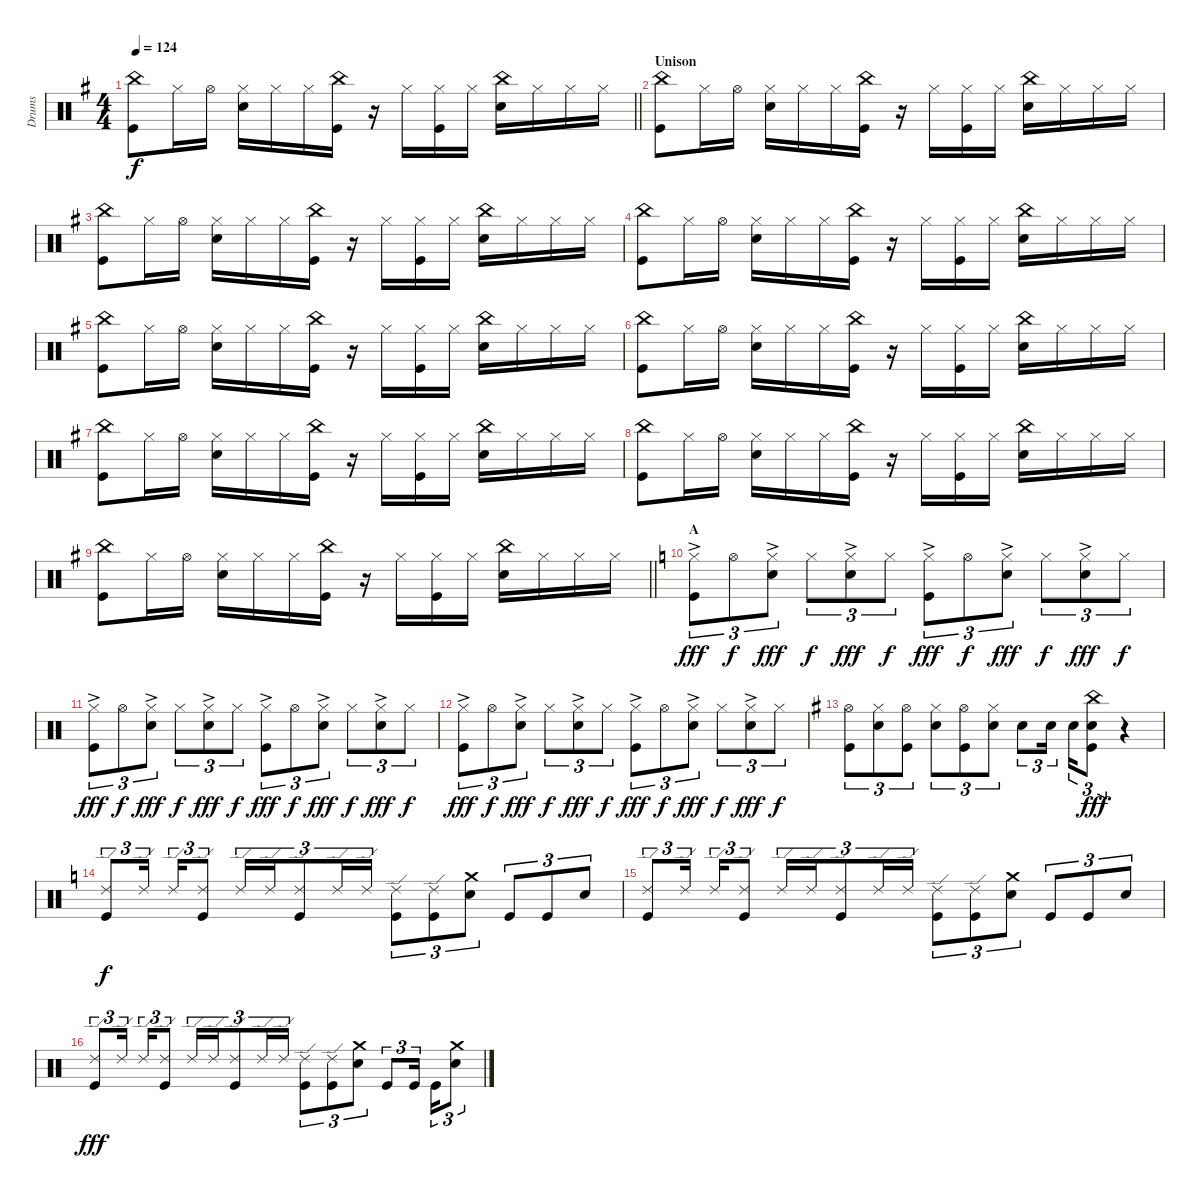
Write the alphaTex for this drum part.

\track ("Drums" "Drums") {instrument percussion}
\staff {score}
\articulation defaults
\ts (4 4)
\tempo 124
\clef neutral
\barLineRight lightlight
\ks eminor
("China (hit)" "Kick (hit)").8{dy f} "Hi-Hat (closed)".16 "Hi-Hat (open)".16 ("Hi-Hat (closed)" "Electric Snare (hit)").16 "Hi-Hat (closed)".16 "Hi-Hat (closed)".16 ("China (hit)" "Kick (hit)").16 r.16 "Hi-Hat (closed)".16 ("Hi-Hat (closed)" "Kick (hit)").16 "Hi-Hat (closed)".16 ("China (hit)" "Electric Snare (hit)").16 "Hi-Hat (closed)".16 "Hi-Hat (closed)".16 "Hi-Hat (closed)".16 |
\section ("" "Unison")
("China (hit)" "Kick (hit)").8 "Hi-Hat (closed)".16 "Hi-Hat (open)".16 ("Hi-Hat (closed)" "Electric Snare (hit)").16 "Hi-Hat (closed)".16 "Hi-Hat (closed)".16 ("China (hit)" "Kick (hit)").16 r.16 "Hi-Hat (closed)".16 ("Hi-Hat (closed)" "Kick (hit)").16 "Hi-Hat (closed)".16 ("China (hit)" "Electric Snare (hit)").16 "Hi-Hat (closed)".16 "Hi-Hat (closed)".16 "Hi-Hat (closed)".16 |
("China (hit)" "Kick (hit)").8 "Hi-Hat (closed)".16 "Hi-Hat (open)".16 ("Hi-Hat (closed)" "Electric Snare (hit)").16 "Hi-Hat (closed)".16 "Hi-Hat (closed)".16 ("China (hit)" "Kick (hit)").16 r.16 "Hi-Hat (closed)".16 ("Hi-Hat (closed)" "Kick (hit)").16 "Hi-Hat (closed)".16 ("China (hit)" "Electric Snare (hit)").16 "Hi-Hat (closed)".16 "Hi-Hat (closed)".16 "Hi-Hat (closed)".16 |
("China (hit)" "Kick (hit)").8 "Hi-Hat (closed)".16 "Hi-Hat (open)".16 ("Hi-Hat (closed)" "Electric Snare (hit)").16 "Hi-Hat (closed)".16 "Hi-Hat (closed)".16 ("China (hit)" "Kick (hit)").16 r.16 "Hi-Hat (closed)".16 ("Hi-Hat (closed)" "Kick (hit)").16 "Hi-Hat (closed)".16 ("China (hit)" "Electric Snare (hit)").16 "Hi-Hat (closed)".16 "Hi-Hat (closed)".16 "Hi-Hat (closed)".16 |
("China (hit)" "Kick (hit)").8 "Hi-Hat (closed)".16 "Hi-Hat (open)".16 ("Hi-Hat (closed)" "Electric Snare (hit)").16 "Hi-Hat (closed)".16 "Hi-Hat (closed)".16 ("China (hit)" "Kick (hit)").16 r.16 "Hi-Hat (closed)".16 ("Hi-Hat (closed)" "Kick (hit)").16 "Hi-Hat (closed)".16 ("China (hit)" "Electric Snare (hit)").16 "Hi-Hat (closed)".16 "Hi-Hat (closed)".16 "Hi-Hat (closed)".16 |
("China (hit)" "Kick (hit)").8 "Hi-Hat (closed)".16 "Hi-Hat (open)".16 ("Hi-Hat (closed)" "Electric Snare (hit)").16 "Hi-Hat (closed)".16 "Hi-Hat (closed)".16 ("China (hit)" "Kick (hit)").16 r.16 "Hi-Hat (closed)".16 ("Hi-Hat (closed)" "Kick (hit)").16 "Hi-Hat (closed)".16 ("China (hit)" "Electric Snare (hit)").16 "Hi-Hat (closed)".16 "Hi-Hat (closed)".16 "Hi-Hat (closed)".16 |
("China (hit)" "Kick (hit)").8 "Hi-Hat (closed)".16 "Hi-Hat (open)".16 ("Hi-Hat (closed)" "Electric Snare (hit)").16 "Hi-Hat (closed)".16 "Hi-Hat (closed)".16 ("China (hit)" "Kick (hit)").16 r.16 "Hi-Hat (closed)".16 ("Hi-Hat (closed)" "Kick (hit)").16 "Hi-Hat (closed)".16 ("China (hit)" "Electric Snare (hit)").16 "Hi-Hat (closed)".16 "Hi-Hat (closed)".16 "Hi-Hat (closed)".16 |
("China (hit)" "Kick (hit)").8 "Hi-Hat (closed)".16 "Hi-Hat (open)".16 ("Hi-Hat (closed)" "Electric Snare (hit)").16 "Hi-Hat (closed)".16 "Hi-Hat (closed)".16 ("China (hit)" "Kick (hit)").16 r.16 "Hi-Hat (closed)".16 ("Hi-Hat (closed)" "Kick (hit)").16 "Hi-Hat (closed)".16 ("China (hit)" "Electric Snare (hit)").16 "Hi-Hat (closed)".16 "Hi-Hat (closed)".16 "Hi-Hat (closed)".16 |
\barLineRight lightlight
("China (hit)" "Kick (hit)").8 "Hi-Hat (closed)".16 "Hi-Hat (open)".16 ("Hi-Hat (closed)" "Electric Snare (hit)").16 "Hi-Hat (closed)".16 "Hi-Hat (closed)".16 ("China (hit)" "Kick (hit)").16 r.16 "Hi-Hat (closed)".16 ("Hi-Hat (closed)" "Kick (hit)").16 "Hi-Hat (closed)".16 ("China (hit)" "Electric Snare (hit)").16 "Hi-Hat (closed)".16 "Hi-Hat (closed)".16 "Hi-Hat (closed)".16 |
\section ("" "A")
\ks c
("Hi-Hat (closed)"{ac} "Kick (hit)").8{tu (3 2) dy fff} "Hi-Hat (open)".8{tu (3 2) dy f} ("Hi-Hat (closed)"{ac} "Electric Snare (hit)").8{tu (3 2) dy fff} "Hi-Hat (closed)".8{tu (3 2) dy f} ("Hi-Hat (closed)"{ac} "Electric Snare (hit)").8{tu (3 2) dy fff} "Hi-Hat (closed)".8{tu (3 2) dy f} ("Hi-Hat (closed)"{ac} "Kick (hit)").8{tu (3 2) dy fff} "Hi-Hat (open)".8{tu (3 2) dy f} ("Hi-Hat (closed)"{ac} "Electric Snare (hit)").8{tu (3 2) dy fff} "Hi-Hat (closed)".8{tu (3 2) dy f} ("Hi-Hat (closed)"{ac} "Electric Snare (hit)").8{tu (3 2) dy fff} "Hi-Hat (closed)".8{tu (3 2) dy f} |
("Hi-Hat (closed)"{ac} "Kick (hit)").8{tu (3 2) dy fff} "Hi-Hat (open)".8{tu (3 2) dy f} ("Hi-Hat (closed)"{ac} "Electric Snare (hit)").8{tu (3 2) dy fff} "Hi-Hat (closed)".8{tu (3 2) dy f} ("Hi-Hat (closed)"{ac} "Electric Snare (hit)").8{tu (3 2) dy fff} "Hi-Hat (closed)".8{tu (3 2) dy f} ("Hi-Hat (closed)"{ac} "Kick (hit)").8{tu (3 2) dy fff} "Hi-Hat (open)".8{tu (3 2) dy f} ("Hi-Hat (closed)"{ac} "Electric Snare (hit)").8{tu (3 2) dy fff} "Hi-Hat (closed)".8{tu (3 2) dy f} ("Hi-Hat (closed)"{ac} "Electric Snare (hit)").8{tu (3 2) dy fff} "Hi-Hat (closed)".8{tu (3 2) dy f} |
("Hi-Hat (closed)"{ac} "Kick (hit)").8{tu (3 2) dy fff} "Hi-Hat (open)".8{tu (3 2) dy f} ("Hi-Hat (closed)"{ac} "Electric Snare (hit)").8{tu (3 2) dy fff} "Hi-Hat (closed)".8{tu (3 2) dy f} ("Hi-Hat (closed)"{ac} "Electric Snare (hit)").8{tu (3 2) dy fff} "Hi-Hat (closed)".8{tu (3 2) dy f} ("Hi-Hat (closed)"{ac} "Kick (hit)").8{tu (3 2) dy fff} "Hi-Hat (open)".8{tu (3 2) dy f} ("Hi-Hat (closed)"{ac} "Electric Snare (hit)").8{tu (3 2) dy fff} "Hi-Hat (closed)".8{tu (3 2) dy f} ("Hi-Hat (closed)"{ac} "Electric Snare (hit)").8{tu (3 2) dy fff} "Hi-Hat (closed)".8{tu (3 2) dy f} |
\ks eminor
("Hi-Hat (open)" "Kick (hit)").8{tu (3 2)} ("Hi-Hat (closed)" "Electric Snare (hit)").8{tu (3 2)} ("Hi-Hat (open)" "Kick (hit)").8{tu (3 2)} ("Hi-Hat (closed)" "Electric Snare (hit)").8{tu (3 2)} ("Hi-Hat (open)" "Kick (hit)").8{tu (3 2)} ("Hi-Hat (closed)" "Electric Snare (hit)").8{tu (3 2)} "Electric Snare (hit)".8{tu (3 2)} "Electric Snare (hit)".16{tu (3 2)} "Electric Snare (hit)".16{tu (3 2)} ("China (hit)" "Electric Snare (hit)" "Kick (hit)").8{tu (3 2) dy fff} r.4 |
\ks c
("Ride (edge) 2" "Kick (hit)").8{tu (3 2) dy f} "Ride (edge) 2".16{tu (3 2)} "Ride (edge) 2".16{tu (3 2)} ("Ride (edge) 2" "Kick (hit)").8{tu (3 2)} "Ride (edge) 2".16{tu (3 2)} "Ride (edge) 2".16{tu (3 2)} ("Ride (edge) 2" "Kick (hit)").8{tu (3 2)} "Ride (edge) 2".16{tu (3 2)} "Ride (edge) 2".16{tu (3 2)} ("Ride (edge) 2" "Kick (hit)").8{tu (3 2)} ("Ride (edge) 2" "Kick (hit)").8{tu (3 2)} ("Crash medium (hit)" "Electric Snare (hit)").8{tu (3 2)} "Kick (hit)".8{tu (3 2)} "Kick (hit)".8{tu (3 2)} "Electric Snare (hit)".8{tu (3 2)} |
("Ride (edge) 2" "Kick (hit)").8{tu (3 2)} "Ride (edge) 2".16{tu (3 2)} "Ride (edge) 2".16{tu (3 2)} ("Ride (edge) 2" "Kick (hit)").8{tu (3 2)} "Ride (edge) 2".16{tu (3 2)} "Ride (edge) 2".16{tu (3 2)} ("Ride (edge) 2" "Kick (hit)").8{tu (3 2)} "Ride (edge) 2".16{tu (3 2)} "Ride (edge) 2".16{tu (3 2)} ("Ride (edge) 2" "Kick (hit)").8{tu (3 2)} ("Ride (edge) 2" "Kick (hit)").8{tu (3 2)} ("Crash medium (hit)" "Electric Snare (hit)").8{tu (3 2)} "Kick (hit)".8{tu (3 2)} "Kick (hit)".8{tu (3 2)} "Electric Snare (hit)".8{tu (3 2)} |
("Ride (edge) 2" "Kick (hit)").8{tu (3 2) dy fff} "Ride (edge) 2".16{tu (3 2)} "Ride (edge) 2".16{tu (3 2)} ("Ride (edge) 2" "Kick (hit)").8{tu (3 2)} "Ride (edge) 2".16{tu (3 2)} "Ride (edge) 2".16{tu (3 2)} ("Ride (edge) 2" "Kick (hit)").8{tu (3 2)} "Ride (edge) 2".16{tu (3 2)} "Ride (edge) 2".16{tu (3 2)} ("Ride (edge) 2" "Kick (hit)").8{tu (3 2)} ("Ride (edge) 2" "Kick (hit)").8{tu (3 2)} ("Crash medium (hit)" "Electric Snare (hit)").8{tu (3 2)} "Kick (hit)".8{tu (3 2)} "Kick (hit)".16{tu (3 2)} "Kick (hit)".16{tu (3 2)} ("Crash medium (hit)" "Electric Snare (hit)").8{tu (3 2)}
